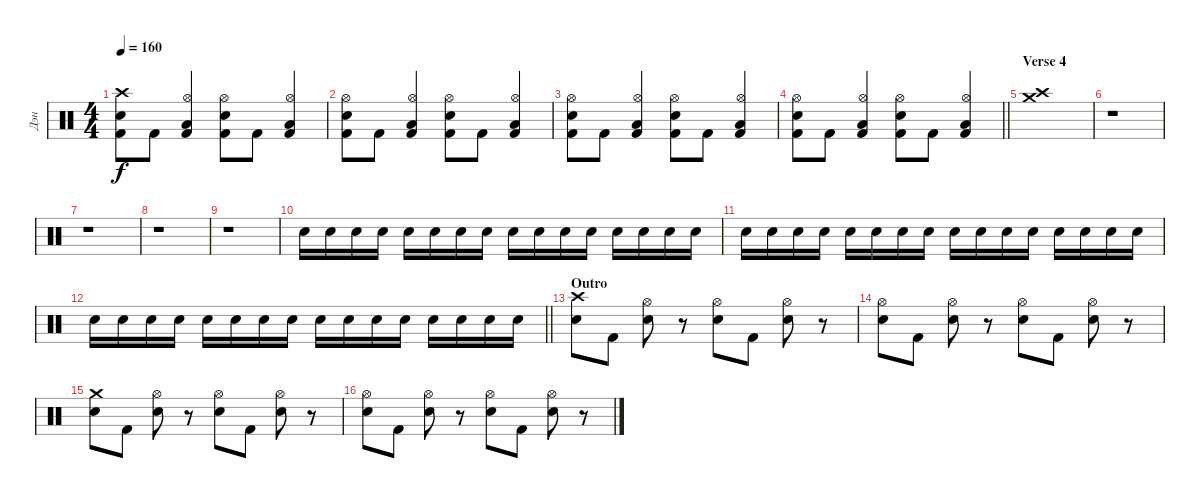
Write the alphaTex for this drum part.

\track ("Дэн" "Дэн") {instrument percussion}
\staff {score}
\articulation defaults
\ts (4 4)
\tempo 160
\clef neutral
\ks c
("Crash high (hit)" "Electric Snare (hit)" "Kick (hit) 2").8{dy f} "Kick (hit) 2".8 ("Hi-Hat (open)" "Low Tom (hit)" "Kick (hit) 2").4 ("Hi-Hat (open)" "Electric Snare (hit)" "Kick (hit) 2").8 "Kick (hit) 2".8 ("Hi-Hat (open)" "Low Tom (hit)" "Kick (hit) 2").4 |
("Hi-Hat (open)" "Electric Snare (hit)" "Kick (hit) 2").8 "Kick (hit) 2".8 ("Hi-Hat (open)" "Low Tom (hit)" "Kick (hit) 2").4 ("Hi-Hat (open)" "Electric Snare (hit)" "Kick (hit) 2").8 "Kick (hit) 2".8 ("Hi-Hat (open)" "Low Tom (hit)" "Kick (hit) 2").4 |
("Hi-Hat (open)" "Electric Snare (hit)" "Kick (hit) 2").8 "Kick (hit) 2".8 ("Hi-Hat (open)" "Low Tom (hit)" "Kick (hit) 2").4 ("Hi-Hat (open)" "Electric Snare (hit)" "Kick (hit) 2").8 "Kick (hit) 2".8 ("Hi-Hat (open)" "Low Tom (hit)" "Kick (hit) 2").4 |
\barLineRight lightlight
("Hi-Hat (open)" "Electric Snare (hit)" "Kick (hit) 2").8 "Kick (hit) 2".8 ("Hi-Hat (open)" "Low Tom (hit)" "Kick (hit) 2").4 ("Hi-Hat (open)" "Electric Snare (hit)" "Kick (hit) 2").8 "Kick (hit) 2".8 ("Hi-Hat (open)" "Low Tom (hit)" "Kick (hit) 2").4 |
\section ("" "Verse 4")
("Crash high (hit)" "Crash medium (hit)").1 |
r.1 |
r.1 |
r.1 |
r.1 |
"Electric Snare (hit)".16{volume 0} "Electric Snare (hit)".16{volume 14} "Electric Snare (hit)".16 "Electric Snare (hit)".16 "Electric Snare (hit)".16 "Electric Snare (hit)".16 "Electric Snare (hit)".16 "Electric Snare (hit)".16 "Electric Snare (hit)".16 "Electric Snare (hit)".16 "Electric Snare (hit)".16 "Electric Snare (hit)".16 "Electric Snare (hit)".16 "Electric Snare (hit)".16 "Electric Snare (hit)".16 "Electric Snare (hit)".16 |
"Electric Snare (hit)".16 "Electric Snare (hit)".16 "Electric Snare (hit)".16 "Electric Snare (hit)".16 "Electric Snare (hit)".16 "Electric Snare (hit)".16 "Electric Snare (hit)".16 "Electric Snare (hit)".16 "Electric Snare (hit)".16 "Electric Snare (hit)".16 "Electric Snare (hit)".16 "Electric Snare (hit)".16 "Electric Snare (hit)".16 "Electric Snare (hit)".16 "Electric Snare (hit)".16 "Electric Snare (hit)".16 |
\barLineRight lightlight "Electric Snare (hit)".16 "Electric Snare (hit)".16 "Electric Snare (hit)".16 "Electric Snare (hit)".16 "Electric Snare (hit)".16 "Electric Snare (hit)".16 "Electric Snare (hit)".16 "Electric Snare (hit)".16 "Electric Snare (hit)".16 "Electric Snare (hit)".16 "Electric Snare (hit)".16 "Electric Snare (hit)".16 "Electric Snare (hit)".16 "Electric Snare (hit)".16 "Electric Snare (hit)".16 "Electric Snare (hit)".16
|
\section ("" "Outro")
("Crash high (hit)" "Electric Snare (hit)").8 "Kick (hit) 2".8 ("Hi-Hat (open)" "Electric Snare (hit)").8 r.8 ("Hi-Hat (open)" "Electric Snare (hit)").8 "Kick (hit) 2".8 ("Hi-Hat (open)" "Electric Snare (hit)").8 r.8 |
("Hi-Hat (open)" "Electric Snare (hit)").8 "Kick (hit) 2".8 ("Hi-Hat (open)" "Electric Snare (hit)").8 r.8 ("Hi-Hat (open)" "Electric Snare (hit)").8 "Kick (hit) 2".8 ("Hi-Hat (open)" "Electric Snare (hit)").8 r.8 |
("Crash medium (hit)" "Electric Snare (hit)").8 "Kick (hit) 2".8 ("Hi-Hat (open)" "Electric Snare (hit)").8 r.8 ("Hi-Hat (open)" "Electric Snare (hit)").8 "Kick (hit) 2".8 ("Hi-Hat (open)" "Electric Snare (hit)").8 r.8 |
("Hi-Hat (open)" "Electric Snare (hit)").8 "Kick (hit) 2".8 ("Hi-Hat (open)" "Electric Snare (hit)").8 r.8 ("Hi-Hat (open)" "Electric Snare (hit)").8 "Kick (hit) 2".8 ("Hi-Hat (open)" "Electric Snare (hit)").8 r.8
